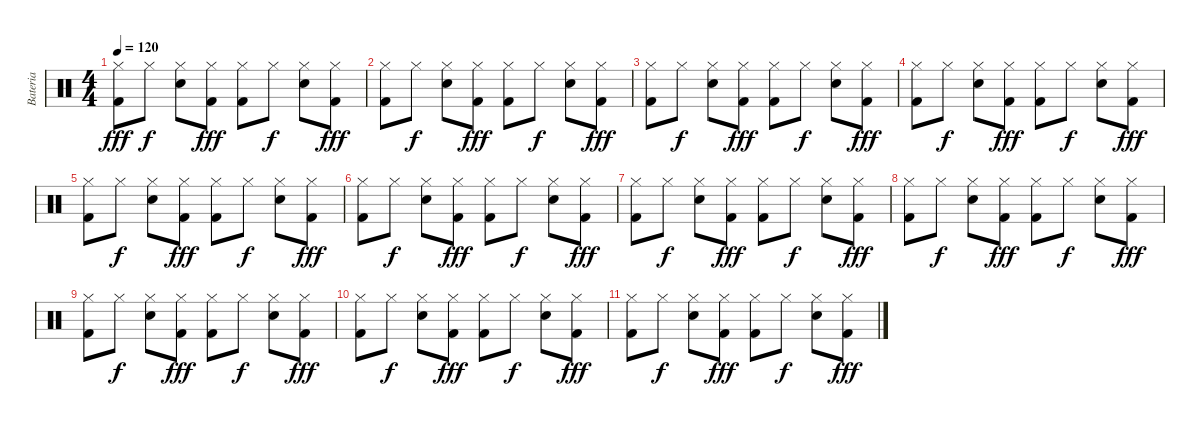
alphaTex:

\track ("Bateria" "Bateria") {instrument percussion}
\staff {score}
\articulation defaults
\ts (4 4)
\tempo 120
\clef neutral
\ks c
("Hi-Hat (closed)" "Kick (hit) 2").8{dy fff} "Hi-Hat (closed)".8{dy f} ("Hi-Hat (closed)" "Snare (hit) 2").8 ("Hi-Hat (closed)" "Kick (hit) 2").8{dy fff} ("Hi-Hat (closed)" "Kick (hit) 2").8 "Hi-Hat (closed)".8{dy f} ("Hi-Hat (closed)" "Snare (hit) 2").8 ("Hi-Hat (closed)" "Kick (hit) 2").8{dy fff} |
("Hi-Hat (closed)" "Kick (hit) 2").8 "Hi-Hat (closed)".8{dy f} ("Hi-Hat (closed)" "Snare (hit) 2").8 ("Hi-Hat (closed)" "Kick (hit) 2").8{dy fff} ("Hi-Hat (closed)" "Kick (hit) 2").8 "Hi-Hat (closed)".8{dy f} ("Hi-Hat (closed)" "Snare (hit) 2").8 ("Hi-Hat (closed)" "Kick (hit) 2").8{dy fff} |
("Hi-Hat (closed)" "Kick (hit) 2").8 "Hi-Hat (closed)".8{dy f} ("Hi-Hat (closed)" "Snare (hit) 2").8 ("Hi-Hat (closed)" "Kick (hit) 2").8{dy fff} ("Hi-Hat (closed)" "Kick (hit) 2").8 "Hi-Hat (closed)".8{dy f} ("Hi-Hat (closed)" "Snare (hit) 2").8 ("Hi-Hat (closed)" "Kick (hit) 2").8{dy fff} |
("Hi-Hat (closed)" "Kick (hit) 2").8 "Hi-Hat (closed)".8{dy f} ("Hi-Hat (closed)" "Snare (hit) 2").8 ("Hi-Hat (closed)" "Kick (hit) 2").8{dy fff} ("Hi-Hat (closed)" "Kick (hit) 2").8 "Hi-Hat (closed)".8{dy f} ("Hi-Hat (closed)" "Snare (hit) 2").8 ("Hi-Hat (closed)" "Kick (hit) 2").8{dy fff} |
("Hi-Hat (closed)" "Kick (hit) 2").8 "Hi-Hat (closed)".8{dy f} ("Hi-Hat (closed)" "Snare (hit) 2").8 ("Hi-Hat (closed)" "Kick (hit) 2").8{dy fff} ("Hi-Hat (closed)" "Kick (hit) 2").8 "Hi-Hat (closed)".8{dy f} ("Hi-Hat (closed)" "Snare (hit) 2").8 ("Hi-Hat (closed)" "Kick (hit) 2").8{dy fff} |
("Hi-Hat (closed)" "Kick (hit) 2").8 "Hi-Hat (closed)".8{dy f} ("Hi-Hat (closed)" "Snare (hit) 2").8 ("Hi-Hat (closed)" "Kick (hit) 2").8{dy fff} ("Hi-Hat (closed)" "Kick (hit) 2").8 "Hi-Hat (closed)".8{dy f} ("Hi-Hat (closed)" "Snare (hit) 2").8 ("Hi-Hat (closed)" "Kick (hit) 2").8{dy fff} |
("Hi-Hat (closed)" "Kick (hit) 2").8 "Hi-Hat (closed)".8{dy f} ("Hi-Hat (closed)" "Snare (hit) 2").8 ("Hi-Hat (closed)" "Kick (hit) 2").8{dy fff} ("Hi-Hat (closed)" "Kick (hit) 2").8 "Hi-Hat (closed)".8{dy f} ("Hi-Hat (closed)" "Snare (hit) 2").8 ("Hi-Hat (closed)" "Kick (hit) 2").8{dy fff} |
("Hi-Hat (closed)" "Kick (hit) 2").8 "Hi-Hat (closed)".8{dy f} ("Hi-Hat (closed)" "Snare (hit) 2").8 ("Hi-Hat (closed)" "Kick (hit) 2").8{dy fff} ("Hi-Hat (closed)" "Kick (hit) 2").8 "Hi-Hat (closed)".8{dy f} ("Hi-Hat (closed)" "Snare (hit) 2").8 ("Hi-Hat (closed)" "Kick (hit) 2").8{dy fff} |
("Hi-Hat (closed)" "Kick (hit) 2").8 "Hi-Hat (closed)".8{dy f} ("Hi-Hat (closed)" "Snare (hit) 2").8 ("Hi-Hat (closed)" "Kick (hit) 2").8{dy fff} ("Hi-Hat (closed)" "Kick (hit) 2").8 "Hi-Hat (closed)".8{dy f} ("Hi-Hat (closed)" "Snare (hit) 2").8 ("Hi-Hat (closed)" "Kick (hit) 2").8{dy fff} |
("Hi-Hat (closed)" "Kick (hit) 2").8 "Hi-Hat (closed)".8{dy f} ("Hi-Hat (closed)" "Snare (hit) 2").8 ("Hi-Hat (closed)" "Kick (hit) 2").8{dy fff} ("Hi-Hat (closed)" "Kick (hit) 2").8 "Hi-Hat (closed)".8{dy f} ("Hi-Hat (closed)" "Snare (hit) 2").8 ("Hi-Hat (closed)" "Kick (hit) 2").8{dy fff} |
("Hi-Hat (closed)" "Kick (hit) 2").8 "Hi-Hat (closed)".8{dy f} ("Hi-Hat (closed)" "Snare (hit) 2").8 ("Hi-Hat (closed)" "Kick (hit) 2").8{dy fff} ("Hi-Hat (closed)" "Kick (hit) 2").8 "Hi-Hat (closed)".8{dy f} ("Hi-Hat (closed)" "Snare (hit) 2").8 ("Hi-Hat (closed)" "Kick (hit) 2").8{dy fff}
